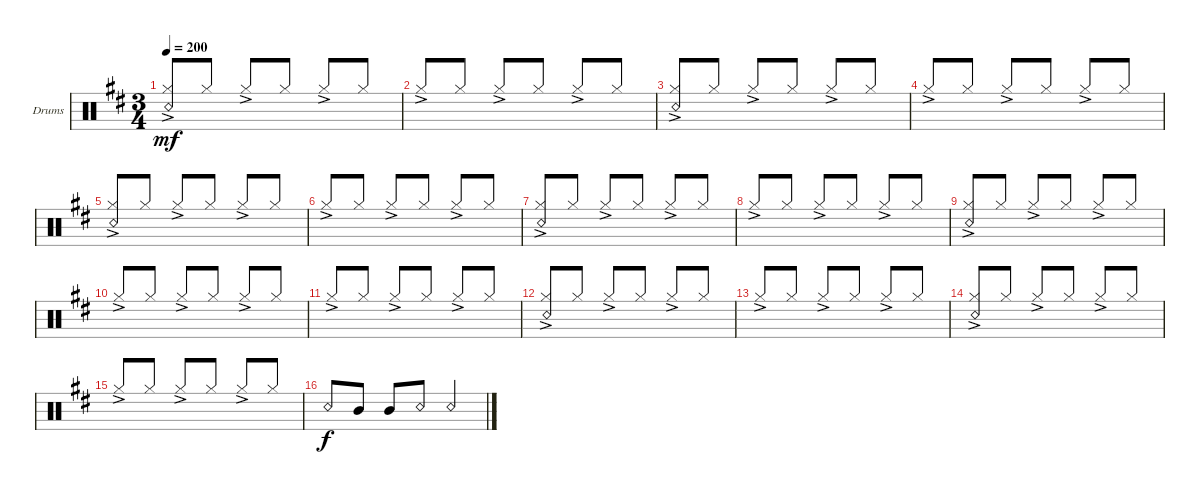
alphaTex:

\defaultSystemsLayout 4
\bracketExtendMode groupsimilarinstruments
\firstSystemTrackNameOrientation horizontal
\otherSystemsTrackNameOrientation horizontal
\track ("Drumkit" "Drums") {instrument percussion}
\staff {score}
\articulation defaults
\ts (3 4)
\tempo 200
\clef neutral
\ks d
("Hi-Hat (closed)"{ac} "Snare (rim shot)").8{dy mf beam invert} "Hi-Hat (closed)".8 "Hi-Hat (closed)"{ac}.8{beam invert} "Hi-Hat (closed)".8 "Hi-Hat (closed)"{ac}.8{beam invert} "Hi-Hat (closed)".8 |
"Hi-Hat (closed)"{ac}.8{beam invert} "Hi-Hat (closed)".8 "Hi-Hat (closed)"{ac}.8{beam invert} "Hi-Hat (closed)".8 "Hi-Hat (closed)"{ac}.8{beam invert} "Hi-Hat (closed)".8 |
("Hi-Hat (closed)"{ac} "Snare (rim shot)").8{beam invert} "Hi-Hat (closed)".8 "Hi-Hat (closed)"{ac}.8{beam invert} "Hi-Hat (closed)".8 "Hi-Hat (closed)"{ac}.8{beam invert} "Hi-Hat (closed)".8 |
"Hi-Hat (closed)"{ac}.8{beam invert} "Hi-Hat (closed)".8 "Hi-Hat (closed)"{ac}.8{beam invert} "Hi-Hat (closed)".8 "Hi-Hat (closed)"{ac}.8{beam invert} "Hi-Hat (closed)".8 |
("Hi-Hat (closed)"{ac} "Snare (rim shot)").8{beam invert} "Hi-Hat (closed)".8 "Hi-Hat (closed)"{ac}.8{beam invert} "Hi-Hat (closed)".8 "Hi-Hat (closed)"{ac}.8{beam invert} "Hi-Hat (closed)".8 |
"Hi-Hat (closed)"{ac}.8{beam invert} "Hi-Hat (closed)".8 "Hi-Hat (closed)"{ac}.8{beam invert} "Hi-Hat (closed)".8 "Hi-Hat (closed)"{ac}.8{beam invert} "Hi-Hat (closed)".8 |
("Hi-Hat (closed)"{ac} "Snare (rim shot)").8{beam invert} "Hi-Hat (closed)".8 "Hi-Hat (closed)"{ac}.8{beam invert} "Hi-Hat (closed)".8 "Hi-Hat (closed)"{ac}.8{beam invert} "Hi-Hat (closed)".8 |
"Hi-Hat (closed)"{ac}.8{beam invert} "Hi-Hat (closed)".8 "Hi-Hat (closed)"{ac}.8{beam invert} "Hi-Hat (closed)".8 "Hi-Hat (closed)"{ac}.8{beam invert} "Hi-Hat (closed)".8 |
("Hi-Hat (closed)"{ac} "Snare (rim shot)").8{beam invert} "Hi-Hat (closed)".8 "Hi-Hat (closed)"{ac}.8{beam invert} "Hi-Hat (closed)".8 "Hi-Hat (closed)"{ac}.8{beam invert} "Hi-Hat (closed)".8 |
"Hi-Hat (closed)"{ac}.8{beam invert} "Hi-Hat (closed)".8 "Hi-Hat (closed)"{ac}.8{beam invert} "Hi-Hat (closed)".8 "Hi-Hat (closed)"{ac}.8{beam invert} "Hi-Hat (closed)".8 |
"Hi-Hat (closed)"{ac}.8{beam invert} "Hi-Hat (closed)".8 "Hi-Hat (closed)"{ac}.8{beam invert} "Hi-Hat (closed)".8 "Hi-Hat (closed)"{ac}.8{beam invert} "Hi-Hat (closed)".8 |
("Hi-Hat (closed)"{ac} "Snare (rim shot)").8{beam invert} "Hi-Hat (closed)".8 "Hi-Hat (closed)"{ac}.8{beam invert} "Hi-Hat (closed)".8 "Hi-Hat (closed)"{ac}.8{beam invert} "Hi-Hat (closed)".8 |
"Hi-Hat (closed)"{ac}.8{beam invert} "Hi-Hat (closed)".8 "Hi-Hat (closed)"{ac}.8{beam invert} "Hi-Hat (closed)".8 "Hi-Hat (closed)"{ac}.8{beam invert} "Hi-Hat (closed)".8 |
("Hi-Hat (closed)"{ac} "Snare (rim shot)").8{beam invert} "Hi-Hat (closed)".8 "Hi-Hat (closed)"{ac}.8{beam invert} "Hi-Hat (closed)".8 "Hi-Hat (closed)"{ac}.8{beam invert} "Hi-Hat (closed)".8 |
"Hi-Hat (closed)"{ac}.8{beam invert} "Hi-Hat (closed)".8 "Hi-Hat (closed)"{ac}.8{beam invert} "Hi-Hat (closed)".8 "Hi-Hat (closed)"{ac}.8{beam invert} "Hi-Hat (closed)".8 |
"Snare (rim shot)".8{dy f beam invert} "Mid Tom (hit)".8 "Mid Tom (hit)".8{beam invert} "Snare (rim shot)".8 "Snare (rim shot)".4{beam invert}
